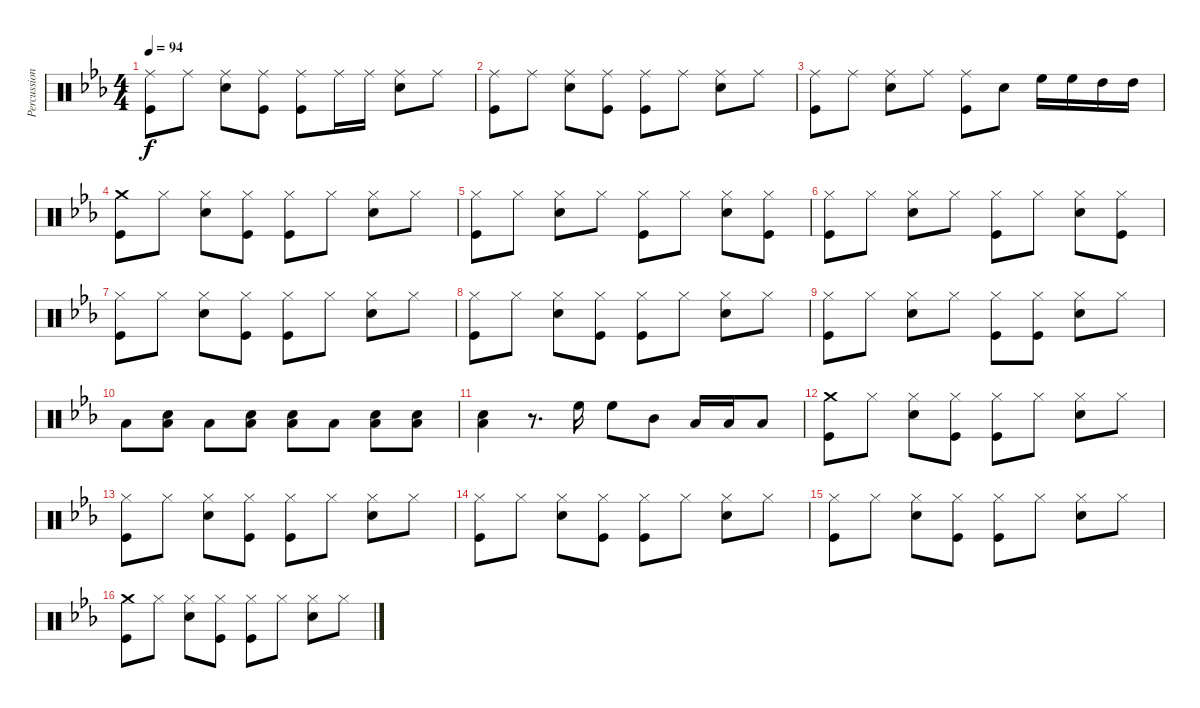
\track ("Percussion" "Percussion") {instrument percussion}
\staff {score}
\articulation defaults
\ts (4 4)
\tempo 94
\clef neutral
\ks eb
("Ride (middle)" "Kick (hit)").8{dy f} "Ride (middle)".8 ("Ride (middle)" "Snare (hit) 2").8 ("Ride (middle)" "Kick (hit)").8 ("Ride (middle)" "Kick (hit)").8 "Ride (middle)".16 "Ride (middle)".16 ("Ride (middle)" "Snare (hit) 2").8 "Ride (middle)".8 |
("Ride (middle)" "Kick (hit)").8 "Ride (middle)".8 ("Ride (middle)" "Snare (hit) 2").8 ("Ride (middle)" "Kick (hit)").8 ("Ride (middle)" "Kick (hit)").8 "Ride (middle)".8 ("Ride (middle)" "Snare (hit) 2").8 "Ride (middle)".8 |
("Ride (middle)" "Kick (hit)").8 "Ride (middle)".8 ("Ride (middle)" "Snare (hit) 2").8 "Ride (middle)".8 ("Ride (middle)" "Kick (hit)").8 "Snare (hit) 2".8 "High Floor Tom (hit)".16 "High Floor Tom (hit)".16 "High Tom (hit)".16 "High Tom (hit)".16 |
("Crash medium (hit)" "Kick (hit)").8 "Hi-Hat (closed)".8 ("Hi-Hat (closed)" "Snare (hit) 2").8 ("Hi-Hat (closed)" "Kick (hit)").8 ("Hi-Hat (closed)" "Kick (hit)").8 "Hi-Hat (closed)".8 ("Hi-Hat (closed)" "Snare (hit) 2").8 "Hi-Hat (closed)".8 |
("Hi-Hat (closed)" "Kick (hit)").8 "Hi-Hat (closed)".8 ("Hi-Hat (closed)" "Snare (hit) 2").8 "Hi-Hat (closed)".8 ("Hi-Hat (closed)" "Kick (hit)").8 "Hi-Hat (closed)".8 ("Hi-Hat (closed)" "Snare (hit) 2").8 ("Hi-Hat (closed)" "Kick (hit)").8 |
("Hi-Hat (closed)" "Kick (hit)").8 "Hi-Hat (closed)".8 ("Hi-Hat (closed)" "Snare (hit) 2").8 "Hi-Hat (closed)".8 ("Hi-Hat (closed)" "Kick (hit)").8 "Hi-Hat (closed)".8 ("Hi-Hat (closed)" "Snare (hit) 2").8 ("Hi-Hat (closed)" "Kick (hit)").8 |
("Hi-Hat (closed)" "Kick (hit)").8 "Hi-Hat (closed)".8 ("Hi-Hat (closed)" "Snare (hit) 2").8 ("Hi-Hat (closed)" "Kick (hit)").8 ("Hi-Hat (closed)" "Kick (hit)").8 "Hi-Hat (closed)".8 ("Hi-Hat (closed)" "Snare (hit) 2").8 "Hi-Hat (closed)".8 |
("Hi-Hat (closed)" "Kick (hit)").8 "Hi-Hat (closed)".8 ("Hi-Hat (closed)" "Snare (hit) 2").8 ("Hi-Hat (closed)" "Kick (hit)").8 ("Hi-Hat (closed)" "Kick (hit)").8 "Hi-Hat (closed)".8 ("Hi-Hat (closed)" "Snare (hit) 2").8 "Hi-Hat (closed)".8 |
("Hi-Hat (closed)" "Kick (hit)").8 "Hi-Hat (closed)".8 ("Hi-Hat (closed)" "Snare (hit) 2").8 "Hi-Hat (closed)".8 ("Hi-Hat (closed)" "Kick (hit)").8 ("Hi-Hat (closed)" "Kick (hit)").8 ("Hi-Hat (closed)" "Snare (hit) 2").8 "Hi-Hat (closed)".8 |
"Low Tom (hit)".8 ("Low Tom (hit)" "Snare (hit) 2").8 "Low Tom (hit)".8 ("Low Tom (hit)" "Snare (hit) 2").8 ("Low Tom (hit)" "Snare (hit) 2").8 "Low Tom (hit)".8 ("Low Tom (hit)" "Snare (hit) 2").8 ("Low Tom (hit)" "Snare (hit) 2").8 |
("Low Tom (hit)" "Snare (hit) 2").4 r.8{d} "High Floor Tom (hit)".16 "High Floor Tom (hit)".8 "Mid Tom (hit)".8 "Low Tom (hit)".16 "Low Tom (hit)".16 "Low Tom (hit)".8 |
("Crash medium (hit)" "Kick (hit)").8 "Hi-Hat (closed)".8 ("Hi-Hat (closed)" "Snare (hit) 2").8 ("Hi-Hat (closed)" "Kick (hit)").8 ("Hi-Hat (closed)" "Kick (hit)").8 "Hi-Hat (closed)".8 ("Hi-Hat (closed)" "Snare (hit) 2").8 "Hi-Hat (closed)".8 |
("Hi-Hat (closed)" "Kick (hit)").8 "Hi-Hat (closed)".8 ("Hi-Hat (closed)" "Snare (hit) 2").8 ("Hi-Hat (closed)" "Kick (hit)").8 ("Hi-Hat (closed)" "Kick (hit)").8 "Hi-Hat (closed)".8 ("Hi-Hat (closed)" "Snare (hit) 2").8 "Hi-Hat (closed)".8 |
("Hi-Hat (closed)" "Kick (hit)").8 "Hi-Hat (closed)".8 ("Hi-Hat (closed)" "Snare (hit) 2").8 ("Hi-Hat (closed)" "Kick (hit)").8 ("Hi-Hat (closed)" "Kick (hit)").8 "Hi-Hat (closed)".8 ("Hi-Hat (closed)" "Snare (hit) 2").8 "Hi-Hat (closed)".8 |
("Hi-Hat (closed)" "Kick (hit)").8 "Hi-Hat (closed)".8 ("Hi-Hat (closed)" "Snare (hit) 2").8 ("Hi-Hat (closed)" "Kick (hit)").8 ("Hi-Hat (closed)" "Kick (hit)").8 "Hi-Hat (closed)".8 ("Hi-Hat (closed)" "Snare (hit) 2").8 "Hi-Hat (closed)".8 |
("Crash medium (hit)" "Kick (hit)").8 "Hi-Hat (closed)".8 ("Hi-Hat (closed)" "Snare (hit) 2").8 ("Hi-Hat (closed)" "Kick (hit)").8 ("Hi-Hat (closed)" "Kick (hit)").8 "Hi-Hat (closed)".8 ("Hi-Hat (closed)" "Snare (hit) 2").8 "Hi-Hat (closed)".8
